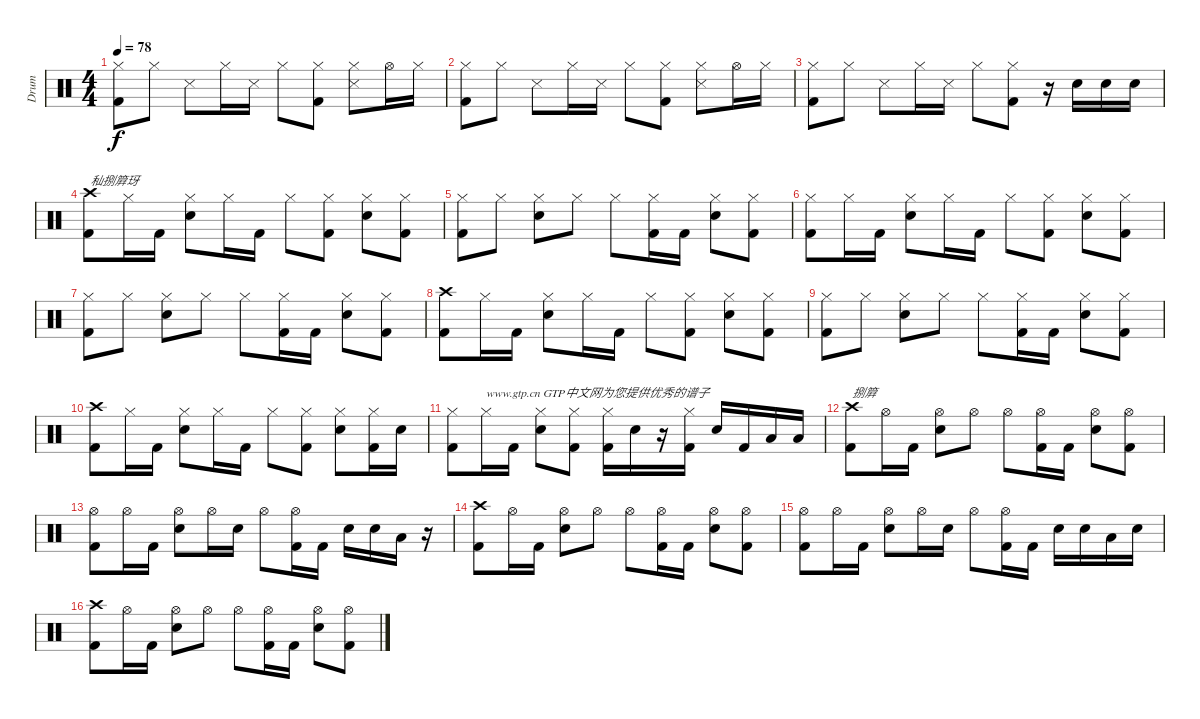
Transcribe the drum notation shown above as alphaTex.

\track ("Drum" "Drum") {instrument percussion}
\staff {score}
\articulation defaults
\ts (4 4)
\tempo 78
\clef neutral
\ks c
("Hi-Hat (closed)" "Kick (hit) 2").8{dy f} "Hi-Hat (closed)".8 "Metronome (hit)".8 "Hi-Hat (closed)".16 "Metronome (hit)".16 "Hi-Hat (closed)".8 ("Hi-Hat (closed)" "Kick (hit) 2").8 ("Hi-Hat (closed)" "Metronome (hit)").8 "Hi-Hat (open)".16 "Hi-Hat (closed)".16 |
("Hi-Hat (closed)" "Kick (hit) 2").8 "Hi-Hat (closed)".8 "Metronome (hit)".8 "Hi-Hat (closed)".16 "Metronome (hit)".16 "Hi-Hat (closed)".8 ("Hi-Hat (closed)" "Kick (hit) 2").8 ("Hi-Hat (closed)" "Metronome (hit)").8 "Hi-Hat (open)".16 "Hi-Hat (closed)".16 |
("Hi-Hat (closed)" "Kick (hit) 2").8 "Hi-Hat (closed)".8 "Metronome (hit)".8 "Hi-Hat (closed)".16 "Metronome (hit)".16 "Hi-Hat (closed)".8 ("Hi-Hat (closed)" "Kick (hit) 2").8 r.16 "Snare (hit) 2".16 "Snare (hit) 2".16 "Snare (hit) 2".16 |
("Crash high (hit)" "Kick (hit) 2").8{txt "秈捌簈玡"} "Hi-Hat (closed)".16 "Kick (hit) 2".16 ("Hi-Hat (closed)" "Snare (hit) 2").8 "Hi-Hat (closed)".16 "Kick (hit) 2".16 "Hi-Hat (closed)".8 ("Hi-Hat (closed)" "Kick (hit) 2").8 ("Hi-Hat (closed)" "Snare (hit) 2").8 ("Hi-Hat (closed)" "Kick (hit) 2").8 |
("Hi-Hat (closed)" "Kick (hit) 2").8 "Hi-Hat (closed)".8 ("Hi-Hat (closed)" "Snare (hit) 2").8 "Hi-Hat (closed)".8 "Hi-Hat (closed)".8 ("Hi-Hat (closed)" "Kick (hit) 2").16 "Kick (hit) 2".16 ("Hi-Hat (closed)" "Snare (hit) 2").8 ("Hi-Hat (closed)" "Kick (hit) 2").8 |
("Hi-Hat (closed)" "Kick (hit) 2").8 "Hi-Hat (closed)".16 "Kick (hit) 2".16 ("Hi-Hat (closed)" "Snare (hit) 2").8 "Hi-Hat (closed)".16 "Kick (hit) 2".16 "Hi-Hat (closed)".8 ("Hi-Hat (closed)" "Kick (hit) 2").8 ("Hi-Hat (closed)" "Snare (hit) 2").8 ("Hi-Hat (closed)" "Kick (hit) 2").8 |
("Hi-Hat (closed)" "Kick (hit) 2").8 "Hi-Hat (closed)".8 ("Hi-Hat (closed)" "Snare (hit) 2").8 "Hi-Hat (closed)".8 "Hi-Hat (closed)".8 ("Hi-Hat (closed)" "Kick (hit) 2").16 "Kick (hit) 2".16 ("Hi-Hat (closed)" "Snare (hit) 2").8 ("Hi-Hat (closed)" "Kick (hit) 2").8 |
("Crash high (hit)" "Kick (hit) 2").8 "Hi-Hat (closed)".16 "Kick (hit) 2".16 ("Hi-Hat (closed)" "Snare (hit) 2").8 "Hi-Hat (closed)".16 "Kick (hit) 2".16 "Hi-Hat (closed)".8 ("Hi-Hat (closed)" "Kick (hit) 2").8 ("Hi-Hat (closed)" "Snare (hit) 2").8 ("Hi-Hat (closed)" "Kick (hit) 2").8 |
("Hi-Hat (closed)" "Kick (hit) 2").8 "Hi-Hat (closed)".8 ("Hi-Hat (closed)" "Snare (hit) 2").8 "Hi-Hat (closed)".8 "Hi-Hat (closed)".8 ("Hi-Hat (closed)" "Kick (hit) 2").16 "Kick (hit) 2".16 ("Hi-Hat (closed)" "Snare (hit) 2").8 ("Hi-Hat (closed)" "Kick (hit) 2").8 |
("Crash high (hit)" "Kick (hit) 2").8 "Hi-Hat (closed)".16 "Kick (hit) 2".16 ("Hi-Hat (closed)" "Snare (hit) 2").8 "Hi-Hat (closed)".16 "Kick (hit) 2".16 "Hi-Hat (closed)".8 ("Hi-Hat (closed)" "Kick (hit) 2").8 ("Hi-Hat (closed)" "Snare (hit) 2").8 ("Hi-Hat (closed)" "Kick (hit) 2").16 "Snare (hit) 2".16 |
("Hi-Hat (closed)" "Kick (hit) 2").8 "Hi-Hat (closed)".16{txt "www.gtp.cn GTP中文网为您提供优秀的谱子"} "Kick (hit) 2".16 ("Hi-Hat (closed)" "Snare (hit) 2").8 ("Hi-Hat (closed)" "Kick (hit) 2").8 ("Hi-Hat (closed)" "Kick (hit) 2").16 "Snare (hit) 2".16 r.16 ("Hi-Hat (closed)" "Kick (hit) 2").16 "Snare (hit) 2".16 "Kick (hit) 2".16 "Low Tom (hit)".16 "Low Tom (hit)".16 |
("Crash high (hit)" "Kick (hit) 2").8{txt "捌簈"} "Hi-Hat (open)".16 "Kick (hit) 2".16 ("Hi-Hat (open)" "Snare (hit) 2").8 "Hi-Hat (open)".8 "Hi-Hat (open)".8 ("Hi-Hat (open)" "Kick (hit) 2").16 "Kick (hit) 2".16 ("Hi-Hat (open)" "Snare (hit) 2").8 ("Hi-Hat (open)" "Kick (hit) 2").8 |
("Hi-Hat (open)" "Kick (hit) 2").8 "Hi-Hat (open)".16 "Kick (hit) 2".16 ("Hi-Hat (open)" "Snare (hit) 2").8 "Hi-Hat (open)".16 "Snare (hit) 2".16 "Hi-Hat (open)".8 ("Hi-Hat (open)" "Kick (hit) 2").16 "Kick (hit) 2".16 "Snare (hit) 2".16 "Snare (hit) 2".16 "Low Tom (hit)".16 r.16 |
("Crash high (hit)" "Kick (hit) 2").8 "Hi-Hat (open)".16 "Kick (hit) 2".16 ("Hi-Hat (open)" "Snare (hit) 2").8 "Hi-Hat (open)".8 "Hi-Hat (open)".8 ("Hi-Hat (open)" "Kick (hit) 2").16 "Kick (hit) 2".16 ("Hi-Hat (open)" "Snare (hit) 2").8 ("Hi-Hat (open)" "Kick (hit) 2").8 |
("Hi-Hat (open)" "Kick (hit) 2").8 "Hi-Hat (open)".16 "Kick (hit) 2".16 ("Hi-Hat (open)" "Snare (hit) 2").8 "Hi-Hat (open)".16 "Snare (hit) 2".16 "Hi-Hat (open)".8 ("Hi-Hat (open)" "Kick (hit) 2").16 "Kick (hit) 2".16 "Snare (hit) 2".16 "Snare (hit) 2".16 "Low Tom (hit)".16 "Snare (hit) 2".16 |
("Crash high (hit)" "Kick (hit) 2").8 "Hi-Hat (open)".16 "Kick (hit) 2".16 ("Hi-Hat (open)" "Snare (hit) 2").8 "Hi-Hat (open)".8 "Hi-Hat (open)".8 ("Hi-Hat (open)" "Kick (hit) 2").16 "Kick (hit) 2".16 ("Hi-Hat (open)" "Snare (hit) 2").8 ("Hi-Hat (open)" "Kick (hit) 2").8
